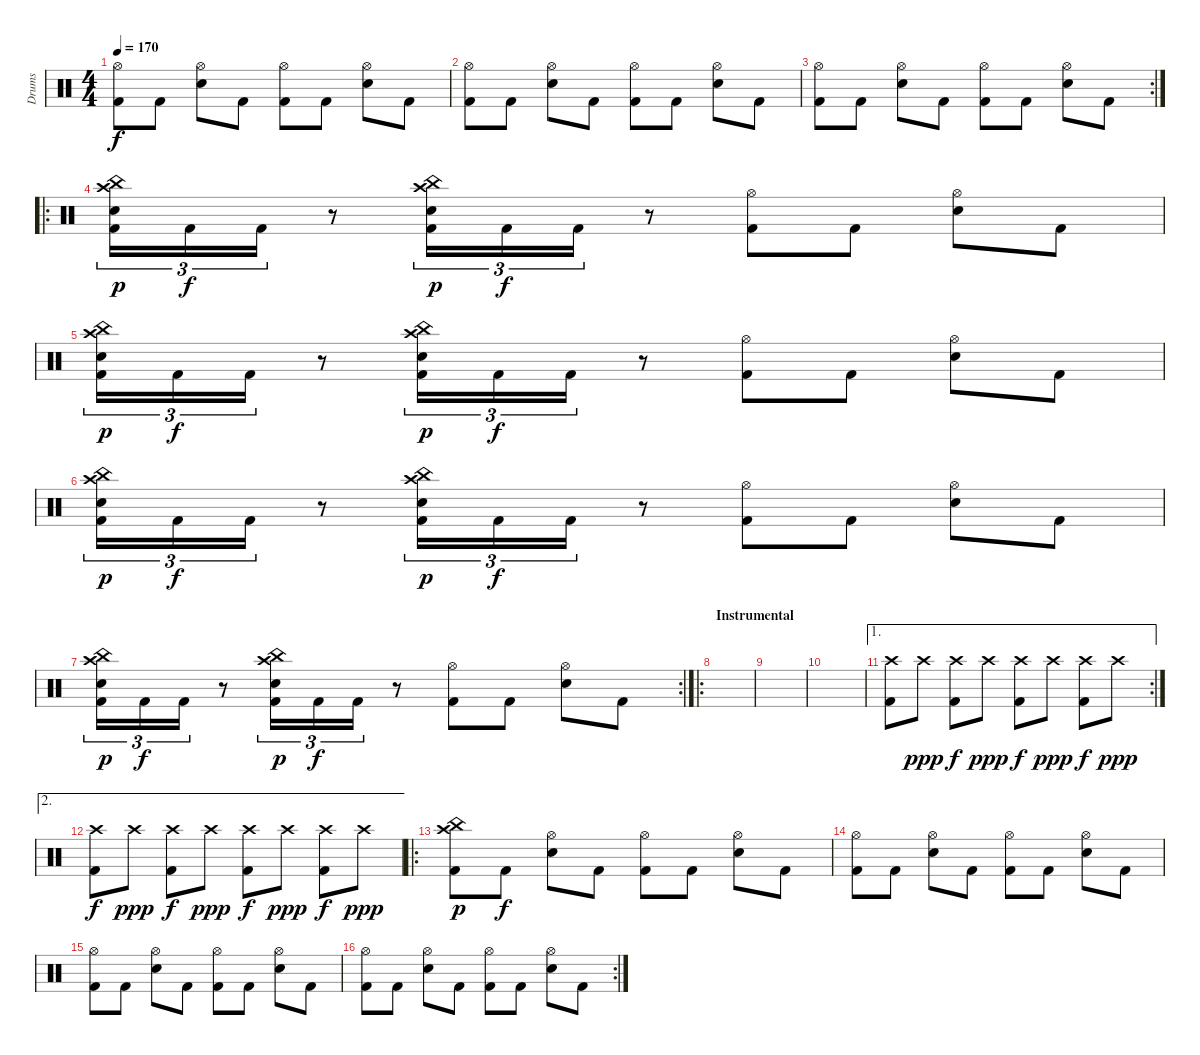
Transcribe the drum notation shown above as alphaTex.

\track ("Drums" "Drums") {instrument percussion}
\staff {score}
\articulation defaults
\ts (4 4)
\tempo 170
\clef neutral
\ks c
("Kick (hit) 2" "Hi-Hat (open)").8{dy f} "Kick (hit) 2".8 ("Electric Snare (hit)" "Hi-Hat (open)").8 "Kick (hit) 2".8 ("Kick (hit) 2" "Hi-Hat (open)").8 "Kick (hit) 2".8 ("Electric Snare (hit)" "Hi-Hat (open)").8 "Kick (hit) 2".8 |
("Kick (hit) 2" "Hi-Hat (open)").8 "Kick (hit) 2".8 ("Electric Snare (hit)" "Hi-Hat (open)").8 "Kick (hit) 2".8 ("Kick (hit) 2" "Hi-Hat (open)").8 "Kick (hit) 2".8 ("Electric Snare (hit)" "Hi-Hat (open)").8 "Kick (hit) 2".8 |
\rc 2
("Kick (hit) 2" "Hi-Hat (open)").8 "Kick (hit) 2".8 ("Electric Snare (hit)" "Hi-Hat (open)").8 "Kick (hit) 2".8 ("Kick (hit) 2" "Hi-Hat (open)").8 "Kick (hit) 2".8 ("Electric Snare (hit)" "Hi-Hat (open)").8 "Kick (hit) 2".8 |
\ro
("Kick (hit) 2" "China (hit)" "Crash high (hit)" "Electric Snare (hit)").16{tu (3 2) dy p} "Kick (hit) 2".16{tu (3 2) dy f} "Kick (hit) 2".16{tu (3 2)} r.8 ("Kick (hit) 2" "China (hit)" "Crash high (hit)" "Electric Snare (hit)").16{tu (3 2) dy p} "Kick (hit) 2".16{tu (3 2) dy f} "Kick (hit) 2".16{tu (3 2)} r.8 ("Kick (hit) 2" "Hi-Hat (open)").8 "Kick (hit) 2".8 ("Electric Snare (hit)" "Hi-Hat (open)").8 "Kick (hit) 2".8 |
("Kick (hit) 2" "China (hit)" "Crash high (hit)" "Electric Snare (hit)").16{tu (3 2) dy p} "Kick (hit) 2".16{tu (3 2) dy f} "Kick (hit) 2".16{tu (3 2)} r.8 ("Kick (hit) 2" "China (hit)" "Crash high (hit)" "Electric Snare (hit)").16{tu (3 2) dy p} "Kick (hit) 2".16{tu (3 2) dy f} "Kick (hit) 2".16{tu (3 2)} r.8 ("Kick (hit) 2" "Hi-Hat (open)").8 "Kick (hit) 2".8 ("Electric Snare (hit)" "Hi-Hat (open)").8 "Kick (hit) 2".8 |
("Kick (hit) 2" "China (hit)" "Crash high (hit)" "Electric Snare (hit)").16{tu (3 2) dy p} "Kick (hit) 2".16{tu (3 2) dy f} "Kick (hit) 2".16{tu (3 2)} r.8 ("Kick (hit) 2" "China (hit)" "Crash high (hit)" "Electric Snare (hit)").16{tu (3 2) dy p} "Kick (hit) 2".16{tu (3 2) dy f} "Kick (hit) 2".16{tu (3 2)} r.8 ("Kick (hit) 2" "Hi-Hat (open)").8 "Kick (hit) 2".8 ("Electric Snare (hit)" "Hi-Hat (open)").8 "Kick (hit) 2".8 |
\rc 2
("Kick (hit) 2" "China (hit)" "Crash high (hit)" "Electric Snare (hit)").16{tu (3 2) dy p} "Kick (hit) 2".16{tu (3 2) dy f} "Kick (hit) 2".16{tu (3 2)} r.8 ("Kick (hit) 2" "China (hit)" "Crash high (hit)" "Electric Snare (hit)").16{tu (3 2) dy p} "Kick (hit) 2".16{tu (3 2) dy f} "Kick (hit) 2".16{tu (3 2)} r.8 ("Kick (hit) 2" "Hi-Hat (open)").8 "Kick (hit) 2".8 ("Electric Snare (hit)" "Hi-Hat (open)").8 "Kick (hit) 2".8 |
\ro
\section ("" "Instrumental")
|
|
|
\ae 1
\rc 2
("Crash high (hit)" "Kick (hit) 2").8 "Crash high (hit)".8{dy ppp} ("Crash high (hit)" "Kick (hit) 2").8{dy f} "Crash high (hit)".8{dy ppp} ("Crash high (hit)" "Kick (hit) 2").8{dy f} "Crash high (hit)".8{dy ppp} ("Crash high (hit)" "Kick (hit) 2").8{dy f} "Crash high (hit)".8{dy ppp} |
\ae 2
("Crash high (hit)" "Kick (hit) 2").8{dy f} "Crash high (hit)".8{dy ppp} ("Crash high (hit)" "Kick (hit) 2").8{dy f} "Crash high (hit)".8{dy ppp} ("Crash high (hit)" "Kick (hit) 2").8{dy f} "Crash high (hit)".8{dy ppp} ("Crash high (hit)" "Kick (hit) 2").8{dy f} "Crash high (hit)".8{dy ppp} |
\ro
("Kick (hit) 2" "China (hit)" "Crash high (hit)").8{dy p} "Kick (hit) 2".8{dy f} ("Electric Snare (hit)" "Hi-Hat (open)").8 "Kick (hit) 2".8 ("Kick (hit) 2" "Hi-Hat (open)").8 "Kick (hit) 2".8 ("Electric Snare (hit)" "Hi-Hat (open)").8 "Kick (hit) 2".8 |
("Kick (hit) 2" "Hi-Hat (open)").8 "Kick (hit) 2".8 ("Electric Snare (hit)" "Hi-Hat (open)").8 "Kick (hit) 2".8 ("Kick (hit) 2" "Hi-Hat (open)").8 "Kick (hit) 2".8 ("Electric Snare (hit)" "Hi-Hat (open)").8 "Kick (hit) 2".8 |
("Kick (hit) 2" "Hi-Hat (open)").8 "Kick (hit) 2".8 ("Electric Snare (hit)" "Hi-Hat (open)").8 "Kick (hit) 2".8 ("Kick (hit) 2" "Hi-Hat (open)").8 "Kick (hit) 2".8 ("Electric Snare (hit)" "Hi-Hat (open)").8 "Kick (hit) 2".8 |
\rc 2
("Kick (hit) 2" "Hi-Hat (open)").8 "Kick (hit) 2".8 ("Electric Snare (hit)" "Hi-Hat (open)").8 "Kick (hit) 2".8 ("Kick (hit) 2" "Hi-Hat (open)").8 "Kick (hit) 2".8 ("Electric Snare (hit)" "Hi-Hat (open)").8 "Kick (hit) 2".8
